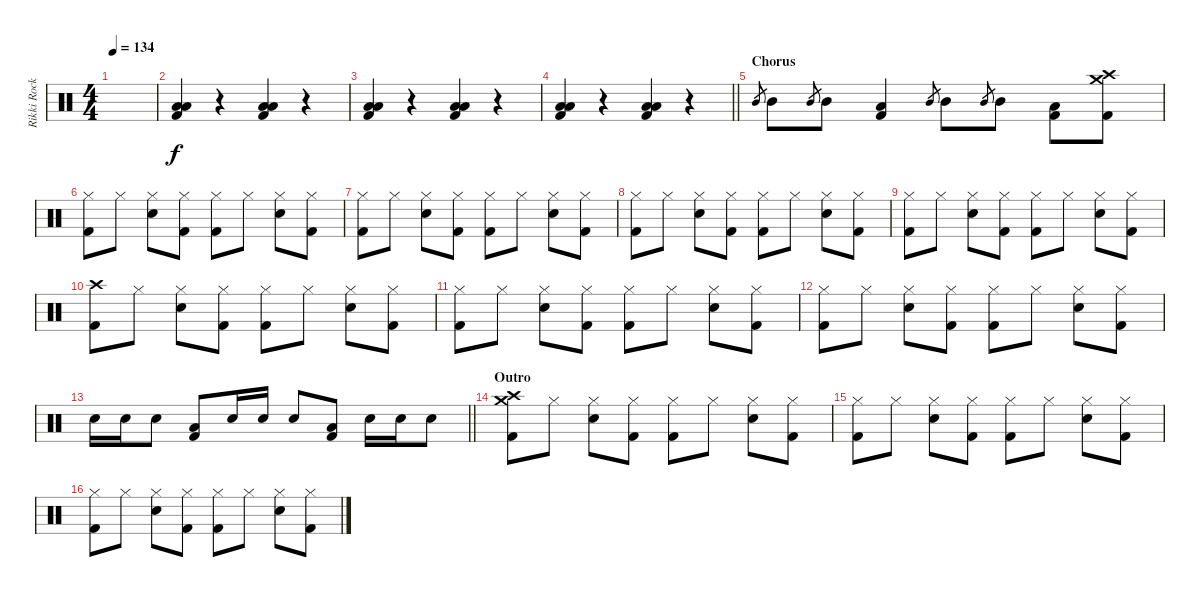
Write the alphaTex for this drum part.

\track ("Rikki Rocket" "Rikki Rock") {instrument percussion}
\staff {score}
\articulation defaults
\ts (4 4)
\tempo 134
\clef neutral
\ks c
|
("Low Tom (hit)" "Low Floor Tom (hit)" "Kick (hit) 2").4 r.4 ("Low Tom (hit)" "Low Floor Tom (hit)" "Kick (hit) 2").4 r.4 |
("Low Tom (hit)" "Low Floor Tom (hit)" "Kick (hit) 2").4 r.4 ("Low Tom (hit)" "Low Floor Tom (hit)" "Kick (hit) 2").4 r.4 |
\barLineRight lightlight
("Low Tom (hit)" "Low Floor Tom (hit)" "Kick (hit) 2").4 r.4 ("Low Tom (hit)" "Low Floor Tom (hit)" "Kick (hit) 2").4 r.4 |
\section ("" "Chorus")
"Mid Tom (hit)".8{gr} "Mid Tom (hit)".8 "Mid Tom (hit)".8{gr} "Mid Tom (hit)".8 ("Low Tom (hit)" "Kick (hit) 2").4 "Mid Tom (hit)".8{gr} "Mid Tom (hit)".8 "Mid Tom (hit)".8{gr} "Mid Tom (hit)".8 ("Low Tom (hit)" "Kick (hit) 2").8 ("Crash medium (hit)" "Crash high (hit)" "Kick (hit) 2").8 |
("Hi-Hat (closed)" "Kick (hit) 2").8 "Hi-Hat (closed)".8 ("Hi-Hat (closed)" "Snare (hit) 2").8 ("Hi-Hat (closed)" "Kick (hit) 2").8 ("Hi-Hat (closed)" "Kick (hit) 2").8 "Hi-Hat (closed)".8 ("Hi-Hat (closed)" "Snare (hit) 2").8 ("Hi-Hat (closed)" "Kick (hit) 2").8 |
("Hi-Hat (closed)" "Kick (hit) 2").8 "Hi-Hat (closed)".8 ("Hi-Hat (closed)" "Snare (hit) 2").8 ("Hi-Hat (closed)" "Kick (hit) 2").8 ("Hi-Hat (closed)" "Kick (hit) 2").8 "Hi-Hat (closed)".8 ("Hi-Hat (closed)" "Snare (hit) 2").8 ("Hi-Hat (closed)" "Kick (hit) 2").8 |
("Hi-Hat (closed)" "Kick (hit) 2").8 "Hi-Hat (closed)".8 ("Hi-Hat (closed)" "Snare (hit) 2").8 ("Hi-Hat (closed)" "Kick (hit) 2").8 ("Hi-Hat (closed)" "Kick (hit) 2").8 "Hi-Hat (closed)".8 ("Hi-Hat (closed)" "Snare (hit) 2").8 ("Hi-Hat (closed)" "Kick (hit) 2").8 |
("Hi-Hat (closed)" "Kick (hit) 2").8 "Hi-Hat (closed)".8 ("Hi-Hat (closed)" "Snare (hit) 2").8 ("Hi-Hat (closed)" "Kick (hit) 2").8 ("Hi-Hat (closed)" "Kick (hit) 2").8 "Hi-Hat (closed)".8 ("Hi-Hat (closed)" "Snare (hit) 2").8 ("Hi-Hat (closed)" "Kick (hit) 2").8 |
("Crash high (hit)" "Kick (hit) 2").8 "Hi-Hat (closed)".8 ("Hi-Hat (closed)" "Snare (hit) 2").8 ("Hi-Hat (closed)" "Kick (hit) 2").8 ("Hi-Hat (closed)" "Kick (hit) 2").8 "Hi-Hat (closed)".8 ("Hi-Hat (closed)" "Snare (hit) 2").8 ("Hi-Hat (closed)" "Kick (hit) 2").8 |
("Hi-Hat (closed)" "Kick (hit) 2").8 "Hi-Hat (closed)".8 ("Hi-Hat (closed)" "Snare (hit) 2").8 ("Hi-Hat (closed)" "Kick (hit) 2").8 ("Hi-Hat (closed)" "Kick (hit) 2").8 "Hi-Hat (closed)".8 ("Hi-Hat (closed)" "Snare (hit) 2").8 ("Hi-Hat (closed)" "Kick (hit) 2").8 |
("Hi-Hat (closed)" "Kick (hit) 2").8 "Hi-Hat (closed)".8 ("Hi-Hat (closed)" "Snare (hit) 2").8 ("Hi-Hat (closed)" "Kick (hit) 2").8 ("Hi-Hat (closed)" "Kick (hit) 2").8 "Hi-Hat (closed)".8 ("Hi-Hat (closed)" "Snare (hit) 2").8 ("Hi-Hat (closed)" "Kick (hit) 2").8 |
\barLineRight lightlight "Snare (hit) 2".16 "Snare (hit) 2".16 "Snare (hit) 2".8
("Low Floor Tom (hit)" "Kick (hit) 2").8 "Snare (hit) 2".16 "Snare (hit) 2".16 "Snare (hit) 2".8 ("Low Floor Tom (hit)" "Kick (hit) 2").8 "Snare (hit) 2".16 "Snare (hit) 2".16 "Snare (hit) 2".8 |
\section ("" "Outro")
("Crash medium (hit)" "Crash high (hit)" "Kick (hit) 2").8 "Hi-Hat (closed)".8 ("Hi-Hat (closed)" "Snare (hit) 2").8 ("Hi-Hat (closed)" "Kick (hit) 2").8 ("Hi-Hat (closed)" "Kick (hit) 2").8 "Hi-Hat (closed)".8 ("Hi-Hat (closed)" "Snare (hit) 2").8 ("Hi-Hat (closed)" "Kick (hit) 2").8 |
("Hi-Hat (closed)" "Kick (hit) 2").8 "Hi-Hat (closed)".8 ("Hi-Hat (closed)" "Snare (hit) 2").8 ("Hi-Hat (closed)" "Kick (hit) 2").8 ("Hi-Hat (closed)" "Kick (hit) 2").8 "Hi-Hat (closed)".8 ("Hi-Hat (closed)" "Snare (hit) 2").8 ("Hi-Hat (closed)" "Kick (hit) 2").8 |
("Hi-Hat (closed)" "Kick (hit) 2").8 "Hi-Hat (closed)".8 ("Hi-Hat (closed)" "Snare (hit) 2").8 ("Hi-Hat (closed)" "Kick (hit) 2").8 ("Hi-Hat (closed)" "Kick (hit) 2").8 "Hi-Hat (closed)".8 ("Hi-Hat (closed)" "Snare (hit) 2").8 ("Hi-Hat (closed)" "Kick (hit) 2").8
